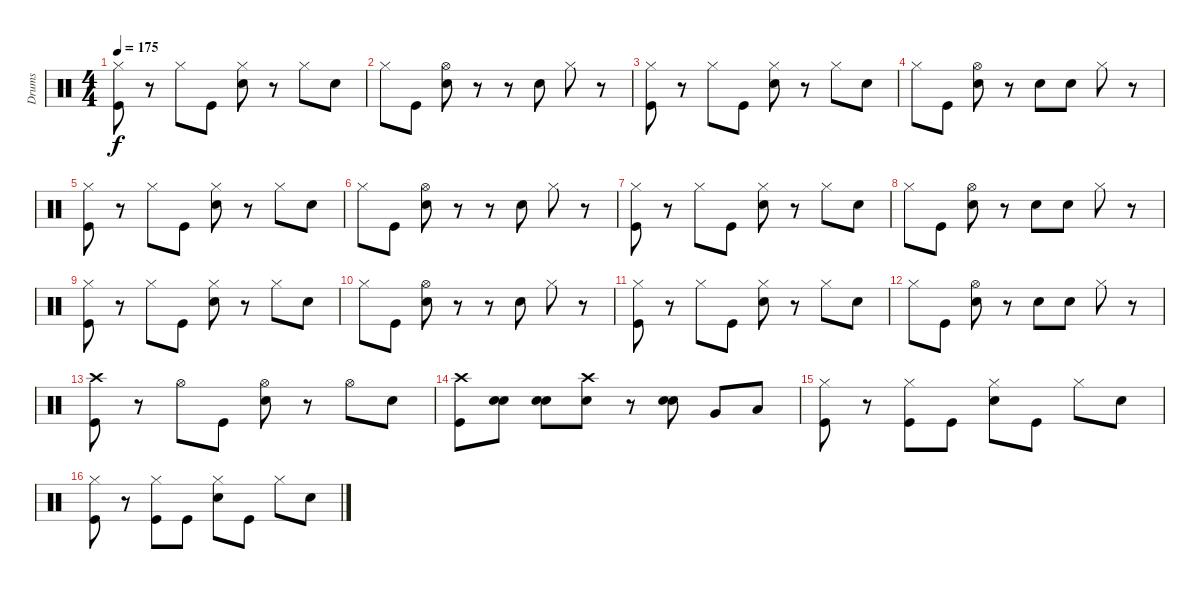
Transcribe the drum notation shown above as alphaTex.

\track ("Drums" "Drums") {instrument percussion}
\staff {score}
\articulation defaults
\ts (4 4)
\tempo 175
\clef neutral
\ks c
("Hi-Hat (closed)" "Kick (hit)").8{dy f} r.8 "Hi-Hat (closed)".8 "Kick (hit)".8 ("Hi-Hat (closed)" "Snare (hit) 2").8 r.8 "Hi-Hat (closed)".8 "Snare (hit) 2".8 |
"Hi-Hat (closed)".8 "Kick (hit)".8 ("Hi-Hat (open)" "Snare (hit) 2").8 r.8 r.8 "Snare (hit) 2".8 "Hi-Hat (closed)".8 r.8 |
("Hi-Hat (closed)" "Kick (hit)").8 r.8 "Hi-Hat (closed)".8 "Kick (hit)".8 ("Hi-Hat (closed)" "Snare (hit) 2").8 r.8 "Hi-Hat (closed)".8 "Snare (hit) 2".8 |
"Hi-Hat (closed)".8 "Kick (hit)".8 ("Hi-Hat (open)" "Snare (hit) 2").8 r.8 "Snare (hit) 2".8 "Snare (hit) 2".8 "Hi-Hat (closed)".8 r.8 |
("Hi-Hat (closed)" "Kick (hit)").8 r.8 "Hi-Hat (closed)".8 "Kick (hit)".8 ("Hi-Hat (closed)" "Snare (hit) 2").8 r.8 "Hi-Hat (closed)".8 "Snare (hit) 2".8 |
"Hi-Hat (closed)".8 "Kick (hit)".8 ("Hi-Hat (open)" "Snare (hit) 2").8 r.8 r.8 "Snare (hit) 2".8 "Hi-Hat (closed)".8 r.8 |
("Hi-Hat (closed)" "Kick (hit)").8 r.8 "Hi-Hat (closed)".8 "Kick (hit)".8 ("Hi-Hat (closed)" "Snare (hit) 2").8 r.8 "Hi-Hat (closed)".8 "Snare (hit) 2".8 |
"Hi-Hat (closed)".8 "Kick (hit)".8 ("Hi-Hat (open)" "Snare (hit) 2").8 r.8 "Snare (hit) 2".8 "Snare (hit) 2".8 "Hi-Hat (closed)".8 r.8 |
("Hi-Hat (closed)" "Kick (hit)").8 r.8 "Hi-Hat (closed)".8 "Kick (hit)".8 ("Hi-Hat (closed)" "Snare (hit) 2").8 r.8 "Hi-Hat (closed)".8 "Snare (hit) 2".8 |
"Hi-Hat (closed)".8 "Kick (hit)".8 ("Hi-Hat (open)" "Snare (hit) 2").8 r.8 r.8 "Snare (hit) 2".8 "Hi-Hat (closed)".8 r.8 |
("Hi-Hat (closed)" "Kick (hit)").8 r.8 "Hi-Hat (closed)".8 "Kick (hit)".8 ("Hi-Hat (closed)" "Snare (hit) 2").8 r.8 "Hi-Hat (closed)".8 "Snare (hit) 2".8 |
"Hi-Hat (closed)".8 "Kick (hit)".8 ("Hi-Hat (open)" "Snare (hit) 2").8 r.8 "Snare (hit) 2".8 "Snare (hit) 2".8 "Hi-Hat (closed)".8 r.8 |
("Crash high (hit)" "Kick (hit)").8 r.8 "Hi-Hat (open)".8 "Kick (hit)".8 ("Hi-Hat (open)" "Snare (hit) 2").8 r.8 "Hi-Hat (open)".8 "Snare (hit) 2".8 |
("Crash high (hit)" "Kick (hit)").8 ("Snare (hit) 2" "Snare (hit) 2").8 ("Snare (hit) 2" "Snare (hit) 2").8 ("Crash high (hit)" "Snare (hit) 2").8 r.8 ("Snare (hit) 2" "Snare (hit) 2").8 "Very Low Tom (hit)".8 "Low Floor Tom (hit)".8 |
("Hi-Hat (closed)" "Kick (hit)").8 r.8 ("Hi-Hat (closed)" "Kick (hit)").8 "Kick (hit)".8 ("Hi-Hat (closed)" "Snare (hit) 2").8 "Kick (hit)".8 "Hi-Hat (closed)".8 "Snare (hit) 2".8 |
("Hi-Hat (closed)" "Kick (hit)").8 r.8 ("Hi-Hat (closed)" "Kick (hit)").8 "Kick (hit)".8 ("Hi-Hat (closed)" "Snare (hit) 2").8 "Kick (hit)".8 "Hi-Hat (closed)".8 "Snare (hit) 2".8
